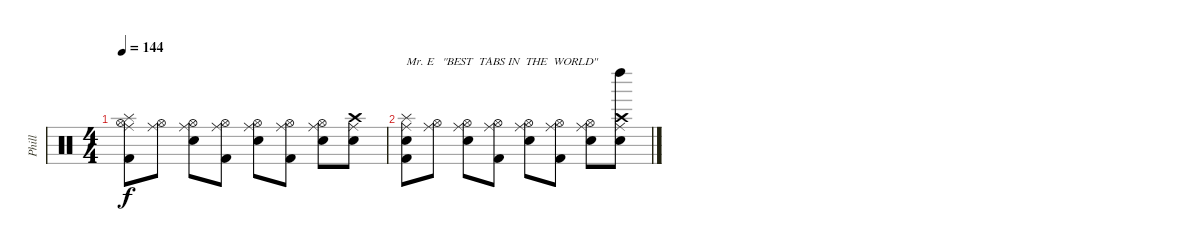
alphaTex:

\track ("Phill" "Phill") {instrument percussion}
\staff {score}
\articulation defaults
\ts (4 4)
\tempo 144
\clef neutral
\ks c
("Hi-Hat (open)" "Ride (middle)" "Splash (hit)" "Kick (hit) 2").8{dy f} ("Hi-Hat (open)" "Ride (middle)").8 ("Hi-Hat (open)" "Ride (middle)" "Snare (hit) 2").8 ("Hi-Hat (open)" "Ride (middle)" "Kick (hit) 2").8 ("Hi-Hat (open)" "Ride (middle)" "Snare (hit) 2").8 ("Hi-Hat (open)" "Ride (middle)" "Kick (hit) 2").8 ("Hi-Hat (open)" "Ride (middle)" "Snare (hit) 2").8 ("Crash high (hit)" "Ride (middle)" "Snare (hit) 2").8 |
("Snare (hit)" "Ride (middle)" "Splash (hit)" "Kick (hit) 2").8{txt "Mr. E   \"BEST  TABS IN  THE  WORLD\""} ("Hi-Hat (open)" "Ride (middle)").8 ("Hi-Hat (open)" "Ride (middle)" "Snare (hit) 2").8 ("Hi-Hat (open)" "Ride (middle)" "Kick (hit) 2").8 ("Hi-Hat (open)" "Ride (middle)" "Snare (hit) 2").8 ("Hi-Hat (open)" "Ride (middle)" "Kick (hit) 2").8 ("Hi-Hat (open)" "Ride (middle)" "Snare (hit) 2").8 ("Left Maraca (hit)" "Crash high (hit)" "Ride (middle)" "Snare (hit) 2").8
